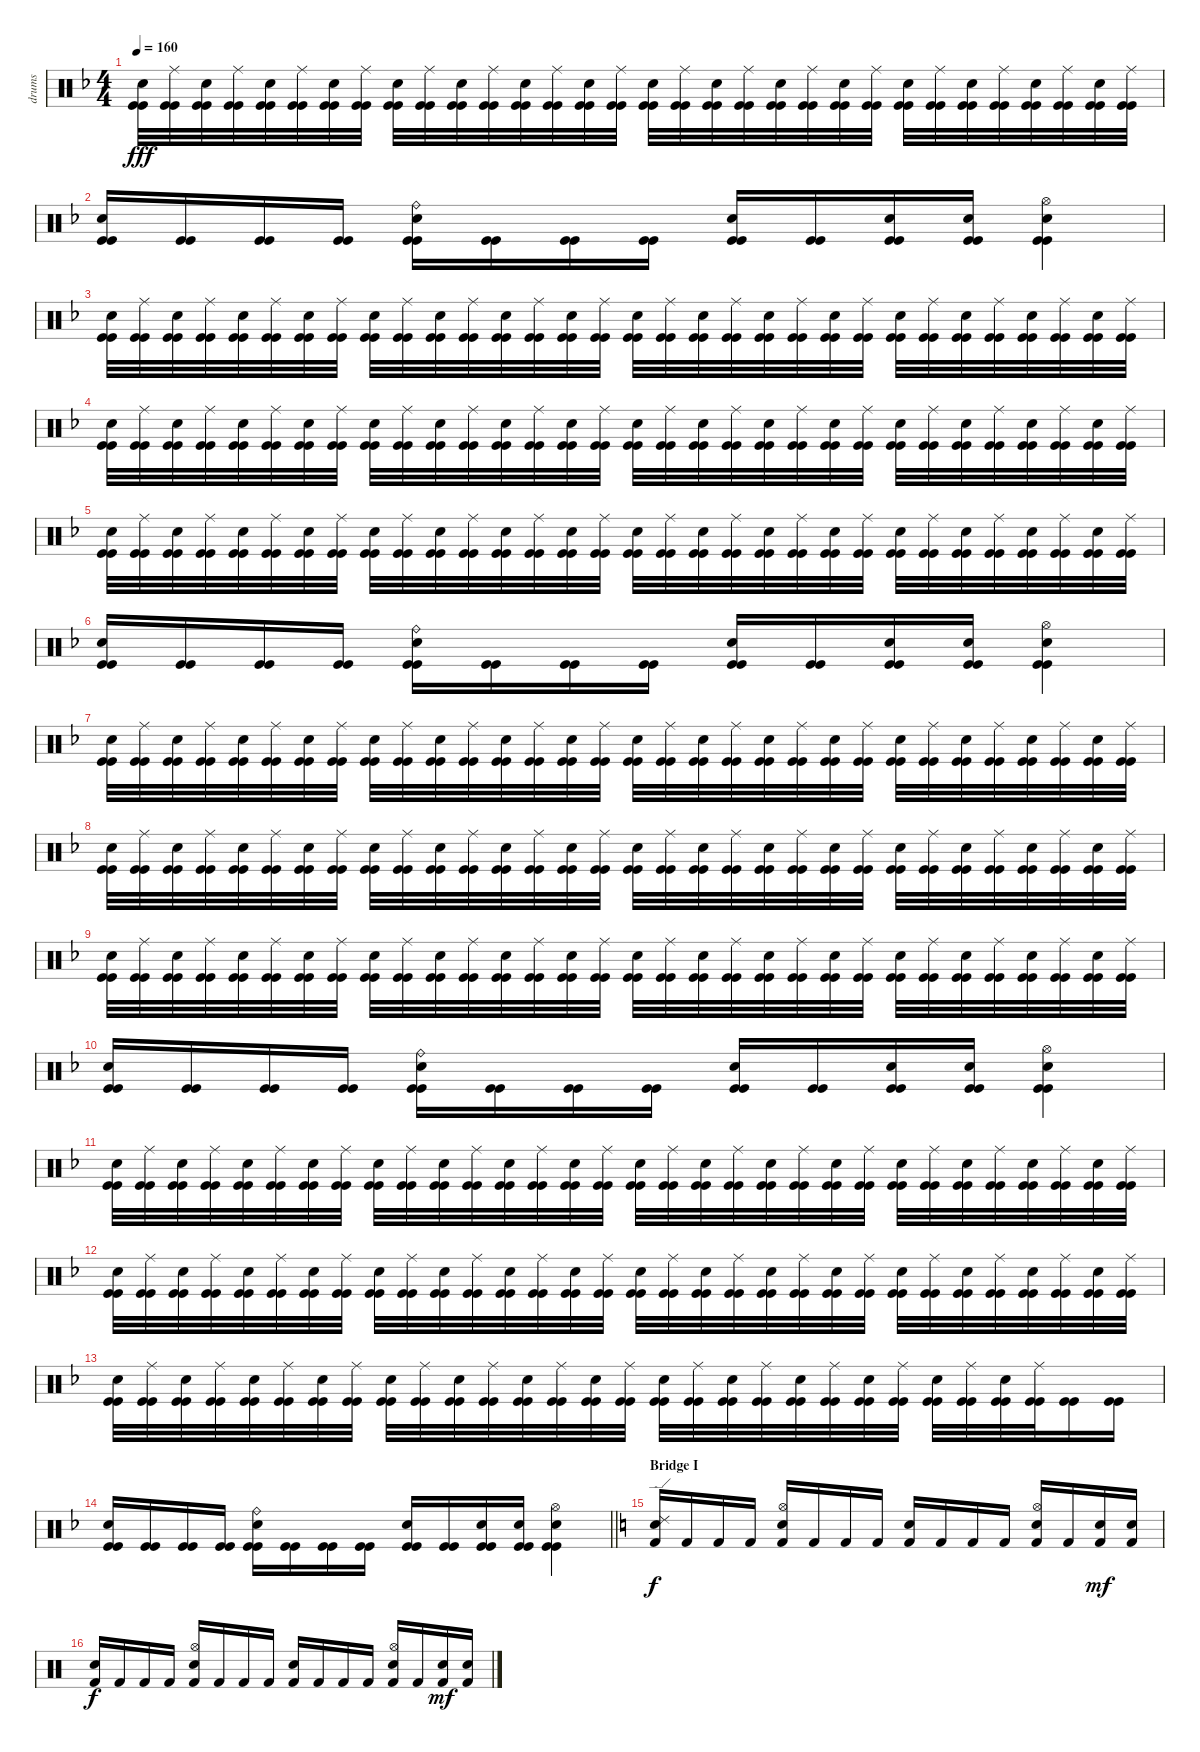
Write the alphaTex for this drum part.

\track ("drums" "drums") {instrument percussion}
\staff {score}
\articulation defaults
\ts (4 4)
\tempo 160
\clef neutral
\ks dminor
("Kick (hit)" "Kick (hit)" "Electric Snare (hit)").32{dy fff} ("Kick (hit)" "Kick (hit)" "Ride (middle)").32 ("Kick (hit)" "Kick (hit)" "Electric Snare (hit)").32 ("Kick (hit)" "Kick (hit)" "Ride (middle)").32 ("Kick (hit)" "Kick (hit)" "Electric Snare (hit)").32 ("Kick (hit)" "Kick (hit)" "Ride (middle)").32 ("Kick (hit)" "Kick (hit)" "Electric Snare (hit)").32 ("Kick (hit)" "Kick (hit)" "Ride (middle)").32 ("Kick (hit)" "Kick (hit)" "Electric Snare (hit)").32 ("Kick (hit)" "Kick (hit)" "Ride (middle)").32 ("Kick (hit)" "Kick (hit)" "Electric Snare (hit)").32 ("Kick (hit)" "Kick (hit)" "Ride (middle)").32 ("Kick (hit)" "Kick (hit)" "Electric Snare (hit)").32 ("Kick (hit)" "Kick (hit)" "Ride (middle)").32 ("Kick (hit)" "Kick (hit)" "Electric Snare (hit)").32 ("Kick (hit)" "Kick (hit)" "Ride (middle)").32 ("Kick (hit)" "Kick (hit)" "Electric Snare (hit)").32 ("Kick (hit)" "Kick (hit)" "Ride (middle)").32 ("Kick (hit)" "Kick (hit)" "Electric Snare (hit)").32 ("Kick (hit)" "Kick (hit)" "Ride (middle)").32 ("Kick (hit)" "Kick (hit)" "Electric Snare (hit)").32 ("Kick (hit)" "Kick (hit)" "Ride (middle)").32 ("Kick (hit)" "Kick (hit)" "Electric Snare (hit)").32 ("Kick (hit)" "Kick (hit)" "Ride (middle)").32 ("Kick (hit)" "Kick (hit)" "Electric Snare (hit)").32 ("Kick (hit)" "Kick (hit)" "Ride (middle)").32 ("Kick (hit)" "Kick (hit)" "Electric Snare (hit)").32 ("Kick (hit)" "Kick (hit)" "Ride (middle)").32 ("Kick (hit)" "Kick (hit)" "Electric Snare (hit)").32 ("Kick (hit)" "Kick (hit)" "Ride (middle)").32 ("Kick (hit)" "Kick (hit)" "Electric Snare (hit)").32 ("Kick (hit)" "Kick (hit)" "Ride (middle)").32 |
("Kick (hit)" "Kick (hit)" "Electric Snare (hit)").16 ("Kick (hit)" "Kick (hit)").16 ("Kick (hit)" "Kick (hit)").16 ("Kick (hit)" "Kick (hit)").16 ("Kick (hit)" "Kick (hit)" "Electric Snare (hit)" "Ride (bell)").16 ("Kick (hit)" "Kick (hit)").16 ("Kick (hit)" "Kick (hit)").16 ("Kick (hit)" "Kick (hit)").16 ("Kick (hit)" "Kick (hit)" "Electric Snare (hit)").16 ("Kick (hit)" "Kick (hit)").16 ("Kick (hit)" "Kick (hit)" "Electric Snare (hit)").16 ("Kick (hit)" "Kick (hit)" "Electric Snare (hit)").16 ("Kick (hit)" "Kick (hit)" "Electric Snare (hit)" "Hi-Hat (open)").4 |
("Kick (hit)" "Kick (hit)" "Electric Snare (hit)").32 ("Kick (hit)" "Kick (hit)" "Ride (middle)").32 ("Kick (hit)" "Kick (hit)" "Electric Snare (hit)").32 ("Kick (hit)" "Kick (hit)" "Ride (middle)").32 ("Kick (hit)" "Kick (hit)" "Electric Snare (hit)").32 ("Kick (hit)" "Kick (hit)" "Ride (middle)").32 ("Kick (hit)" "Kick (hit)" "Electric Snare (hit)").32 ("Kick (hit)" "Kick (hit)" "Ride (middle)").32 ("Kick (hit)" "Kick (hit)" "Electric Snare (hit)").32 ("Kick (hit)" "Kick (hit)" "Ride (middle)").32 ("Kick (hit)" "Kick (hit)" "Electric Snare (hit)").32 ("Kick (hit)" "Kick (hit)" "Ride (middle)").32 ("Kick (hit)" "Kick (hit)" "Electric Snare (hit)").32 ("Kick (hit)" "Kick (hit)" "Ride (middle)").32 ("Kick (hit)" "Kick (hit)" "Electric Snare (hit)").32 ("Kick (hit)" "Kick (hit)" "Ride (middle)").32 ("Kick (hit)" "Kick (hit)" "Electric Snare (hit)").32 ("Kick (hit)" "Kick (hit)" "Ride (middle)").32 ("Kick (hit)" "Kick (hit)" "Electric Snare (hit)").32 ("Kick (hit)" "Kick (hit)" "Ride (middle)").32 ("Kick (hit)" "Kick (hit)" "Electric Snare (hit)").32 ("Kick (hit)" "Kick (hit)" "Ride (middle)").32 ("Kick (hit)" "Kick (hit)" "Electric Snare (hit)").32 ("Kick (hit)" "Kick (hit)" "Ride (middle)").32 ("Kick (hit)" "Kick (hit)" "Electric Snare (hit)").32 ("Kick (hit)" "Kick (hit)" "Ride (middle)").32 ("Kick (hit)" "Kick (hit)" "Electric Snare (hit)").32 ("Kick (hit)" "Kick (hit)" "Ride (middle)").32 ("Kick (hit)" "Kick (hit)" "Electric Snare (hit)").32 ("Kick (hit)" "Kick (hit)" "Ride (middle)").32 ("Kick (hit)" "Kick (hit)" "Electric Snare (hit)").32 ("Kick (hit)" "Kick (hit)" "Ride (middle)").32 |
("Kick (hit)" "Kick (hit)" "Electric Snare (hit)").32 ("Kick (hit)" "Kick (hit)" "Ride (middle)").32 ("Kick (hit)" "Kick (hit)" "Electric Snare (hit)").32 ("Kick (hit)" "Kick (hit)" "Ride (middle)").32 ("Kick (hit)" "Kick (hit)" "Electric Snare (hit)").32 ("Kick (hit)" "Kick (hit)" "Ride (middle)").32 ("Kick (hit)" "Kick (hit)" "Electric Snare (hit)").32 ("Kick (hit)" "Kick (hit)" "Ride (middle)").32 ("Kick (hit)" "Kick (hit)" "Electric Snare (hit)").32 ("Kick (hit)" "Kick (hit)" "Ride (middle)").32 ("Kick (hit)" "Kick (hit)" "Electric Snare (hit)").32 ("Kick (hit)" "Kick (hit)" "Ride (middle)").32 ("Kick (hit)" "Kick (hit)" "Electric Snare (hit)").32 ("Kick (hit)" "Kick (hit)" "Ride (middle)").32 ("Kick (hit)" "Kick (hit)" "Electric Snare (hit)").32 ("Kick (hit)" "Kick (hit)" "Ride (middle)").32 ("Kick (hit)" "Kick (hit)" "Electric Snare (hit)").32 ("Kick (hit)" "Kick (hit)" "Ride (middle)").32 ("Kick (hit)" "Kick (hit)" "Electric Snare (hit)").32 ("Kick (hit)" "Kick (hit)" "Ride (middle)").32 ("Kick (hit)" "Kick (hit)" "Electric Snare (hit)").32 ("Kick (hit)" "Kick (hit)" "Ride (middle)").32 ("Kick (hit)" "Kick (hit)" "Electric Snare (hit)").32 ("Kick (hit)" "Kick (hit)" "Ride (middle)").32 ("Kick (hit)" "Kick (hit)" "Electric Snare (hit)").32 ("Kick (hit)" "Kick (hit)" "Ride (middle)").32 ("Kick (hit)" "Kick (hit)" "Electric Snare (hit)").32 ("Kick (hit)" "Kick (hit)" "Ride (middle)").32 ("Kick (hit)" "Kick (hit)" "Electric Snare (hit)").32 ("Kick (hit)" "Kick (hit)" "Ride (middle)").32 ("Kick (hit)" "Kick (hit)" "Electric Snare (hit)").32 ("Kick (hit)" "Kick (hit)" "Ride (middle)").32 |
("Kick (hit)" "Kick (hit)" "Electric Snare (hit)").32 ("Kick (hit)" "Kick (hit)" "Ride (middle)").32 ("Kick (hit)" "Kick (hit)" "Electric Snare (hit)").32 ("Kick (hit)" "Kick (hit)" "Ride (middle)").32 ("Kick (hit)" "Kick (hit)" "Electric Snare (hit)").32 ("Kick (hit)" "Kick (hit)" "Ride (middle)").32 ("Kick (hit)" "Kick (hit)" "Electric Snare (hit)").32 ("Kick (hit)" "Kick (hit)" "Ride (middle)").32 ("Kick (hit)" "Kick (hit)" "Electric Snare (hit)").32 ("Kick (hit)" "Kick (hit)" "Ride (middle)").32 ("Kick (hit)" "Kick (hit)" "Electric Snare (hit)").32 ("Kick (hit)" "Kick (hit)" "Ride (middle)").32 ("Kick (hit)" "Kick (hit)" "Electric Snare (hit)").32 ("Kick (hit)" "Kick (hit)" "Ride (middle)").32 ("Kick (hit)" "Kick (hit)" "Electric Snare (hit)").32 ("Kick (hit)" "Kick (hit)" "Ride (middle)").32 ("Kick (hit)" "Kick (hit)" "Electric Snare (hit)").32 ("Kick (hit)" "Kick (hit)" "Ride (middle)").32 ("Kick (hit)" "Kick (hit)" "Electric Snare (hit)").32 ("Kick (hit)" "Kick (hit)" "Ride (middle)").32 ("Kick (hit)" "Kick (hit)" "Electric Snare (hit)").32 ("Kick (hit)" "Kick (hit)" "Ride (middle)").32 ("Kick (hit)" "Kick (hit)" "Electric Snare (hit)").32 ("Kick (hit)" "Kick (hit)" "Ride (middle)").32 ("Kick (hit)" "Kick (hit)" "Electric Snare (hit)").32 ("Kick (hit)" "Kick (hit)" "Ride (middle)").32 ("Kick (hit)" "Kick (hit)" "Electric Snare (hit)").32 ("Kick (hit)" "Kick (hit)" "Ride (middle)").32 ("Kick (hit)" "Kick (hit)" "Electric Snare (hit)").32 ("Kick (hit)" "Kick (hit)" "Ride (middle)").32 ("Kick (hit)" "Kick (hit)" "Electric Snare (hit)").32 ("Kick (hit)" "Kick (hit)" "Ride (middle)").32 |
("Kick (hit)" "Kick (hit)" "Electric Snare (hit)").16 ("Kick (hit)" "Kick (hit)").16 ("Kick (hit)" "Kick (hit)").16 ("Kick (hit)" "Kick (hit)").16 ("Kick (hit)" "Kick (hit)" "Electric Snare (hit)" "Ride (bell)").16 ("Kick (hit)" "Kick (hit)").16 ("Kick (hit)" "Kick (hit)").16 ("Kick (hit)" "Kick (hit)").16 ("Kick (hit)" "Kick (hit)" "Electric Snare (hit)").16 ("Kick (hit)" "Kick (hit)").16 ("Kick (hit)" "Kick (hit)" "Electric Snare (hit)").16 ("Kick (hit)" "Kick (hit)" "Electric Snare (hit)").16 ("Kick (hit)" "Kick (hit)" "Electric Snare (hit)" "Hi-Hat (open)").4 |
("Kick (hit)" "Kick (hit)" "Electric Snare (hit)").32 ("Kick (hit)" "Kick (hit)" "Ride (middle)").32 ("Kick (hit)" "Kick (hit)" "Electric Snare (hit)").32 ("Kick (hit)" "Kick (hit)" "Ride (middle)").32 ("Kick (hit)" "Kick (hit)" "Electric Snare (hit)").32 ("Kick (hit)" "Kick (hit)" "Ride (middle)").32 ("Kick (hit)" "Kick (hit)" "Electric Snare (hit)").32 ("Kick (hit)" "Kick (hit)" "Ride (middle)").32 ("Kick (hit)" "Kick (hit)" "Electric Snare (hit)").32 ("Kick (hit)" "Kick (hit)" "Ride (middle)").32 ("Kick (hit)" "Kick (hit)" "Electric Snare (hit)").32 ("Kick (hit)" "Kick (hit)" "Ride (middle)").32 ("Kick (hit)" "Kick (hit)" "Electric Snare (hit)").32 ("Kick (hit)" "Kick (hit)" "Ride (middle)").32 ("Kick (hit)" "Kick (hit)" "Electric Snare (hit)").32 ("Kick (hit)" "Kick (hit)" "Ride (middle)").32 ("Kick (hit)" "Kick (hit)" "Electric Snare (hit)").32 ("Kick (hit)" "Kick (hit)" "Ride (middle)").32 ("Kick (hit)" "Kick (hit)" "Electric Snare (hit)").32 ("Kick (hit)" "Kick (hit)" "Ride (middle)").32 ("Kick (hit)" "Kick (hit)" "Electric Snare (hit)").32 ("Kick (hit)" "Kick (hit)" "Ride (middle)").32 ("Kick (hit)" "Kick (hit)" "Electric Snare (hit)").32 ("Kick (hit)" "Kick (hit)" "Ride (middle)").32 ("Kick (hit)" "Kick (hit)" "Electric Snare (hit)").32 ("Kick (hit)" "Kick (hit)" "Ride (middle)").32 ("Kick (hit)" "Kick (hit)" "Electric Snare (hit)").32 ("Kick (hit)" "Kick (hit)" "Ride (middle)").32 ("Kick (hit)" "Kick (hit)" "Electric Snare (hit)").32 ("Kick (hit)" "Kick (hit)" "Ride (middle)").32 ("Kick (hit)" "Kick (hit)" "Electric Snare (hit)").32 ("Kick (hit)" "Kick (hit)" "Ride (middle)").32 |
("Kick (hit)" "Kick (hit)" "Electric Snare (hit)").32 ("Kick (hit)" "Kick (hit)" "Ride (middle)").32 ("Kick (hit)" "Kick (hit)" "Electric Snare (hit)").32 ("Kick (hit)" "Kick (hit)" "Ride (middle)").32 ("Kick (hit)" "Kick (hit)" "Electric Snare (hit)").32 ("Kick (hit)" "Kick (hit)" "Ride (middle)").32 ("Kick (hit)" "Kick (hit)" "Electric Snare (hit)").32 ("Kick (hit)" "Kick (hit)" "Ride (middle)").32 ("Kick (hit)" "Kick (hit)" "Electric Snare (hit)").32 ("Kick (hit)" "Kick (hit)" "Ride (middle)").32 ("Kick (hit)" "Kick (hit)" "Electric Snare (hit)").32 ("Kick (hit)" "Kick (hit)" "Ride (middle)").32 ("Kick (hit)" "Kick (hit)" "Electric Snare (hit)").32 ("Kick (hit)" "Kick (hit)" "Ride (middle)").32 ("Kick (hit)" "Kick (hit)" "Electric Snare (hit)").32 ("Kick (hit)" "Kick (hit)" "Ride (middle)").32 ("Kick (hit)" "Kick (hit)" "Electric Snare (hit)").32 ("Kick (hit)" "Kick (hit)" "Ride (middle)").32 ("Kick (hit)" "Kick (hit)" "Electric Snare (hit)").32 ("Kick (hit)" "Kick (hit)" "Ride (middle)").32 ("Kick (hit)" "Kick (hit)" "Electric Snare (hit)").32 ("Kick (hit)" "Kick (hit)" "Ride (middle)").32 ("Kick (hit)" "Kick (hit)" "Electric Snare (hit)").32 ("Kick (hit)" "Kick (hit)" "Ride (middle)").32 ("Kick (hit)" "Kick (hit)" "Electric Snare (hit)").32 ("Kick (hit)" "Kick (hit)" "Ride (middle)").32 ("Kick (hit)" "Kick (hit)" "Electric Snare (hit)").32 ("Kick (hit)" "Kick (hit)" "Ride (middle)").32 ("Kick (hit)" "Kick (hit)" "Electric Snare (hit)").32 ("Kick (hit)" "Kick (hit)" "Ride (middle)").32 ("Kick (hit)" "Kick (hit)" "Electric Snare (hit)").32 ("Kick (hit)" "Kick (hit)" "Ride (middle)").32 |
("Kick (hit)" "Kick (hit)" "Electric Snare (hit)").32 ("Kick (hit)" "Kick (hit)" "Ride (middle)").32 ("Kick (hit)" "Kick (hit)" "Electric Snare (hit)").32 ("Kick (hit)" "Kick (hit)" "Ride (middle)").32 ("Kick (hit)" "Kick (hit)" "Electric Snare (hit)").32 ("Kick (hit)" "Kick (hit)" "Ride (middle)").32 ("Kick (hit)" "Kick (hit)" "Electric Snare (hit)").32 ("Kick (hit)" "Kick (hit)" "Ride (middle)").32 ("Kick (hit)" "Kick (hit)" "Electric Snare (hit)").32 ("Kick (hit)" "Kick (hit)" "Ride (middle)").32 ("Kick (hit)" "Kick (hit)" "Electric Snare (hit)").32 ("Kick (hit)" "Kick (hit)" "Ride (middle)").32 ("Kick (hit)" "Kick (hit)" "Electric Snare (hit)").32 ("Kick (hit)" "Kick (hit)" "Ride (middle)").32 ("Kick (hit)" "Kick (hit)" "Electric Snare (hit)").32 ("Kick (hit)" "Kick (hit)" "Ride (middle)").32 ("Kick (hit)" "Kick (hit)" "Electric Snare (hit)").32 ("Kick (hit)" "Kick (hit)" "Ride (middle)").32 ("Kick (hit)" "Kick (hit)" "Electric Snare (hit)").32 ("Kick (hit)" "Kick (hit)" "Ride (middle)").32 ("Kick (hit)" "Kick (hit)" "Electric Snare (hit)").32 ("Kick (hit)" "Kick (hit)" "Ride (middle)").32 ("Kick (hit)" "Kick (hit)" "Electric Snare (hit)").32 ("Kick (hit)" "Kick (hit)" "Ride (middle)").32 ("Kick (hit)" "Kick (hit)" "Electric Snare (hit)").32 ("Kick (hit)" "Kick (hit)" "Ride (middle)").32 ("Kick (hit)" "Kick (hit)" "Electric Snare (hit)").32 ("Kick (hit)" "Kick (hit)" "Ride (middle)").32 ("Kick (hit)" "Kick (hit)" "Electric Snare (hit)").32 ("Kick (hit)" "Kick (hit)" "Ride (middle)").32 ("Kick (hit)" "Kick (hit)" "Electric Snare (hit)").32 ("Kick (hit)" "Kick (hit)" "Ride (middle)").32 |
("Kick (hit)" "Kick (hit)" "Electric Snare (hit)").16 ("Kick (hit)" "Kick (hit)").16 ("Kick (hit)" "Kick (hit)").16 ("Kick (hit)" "Kick (hit)").16 ("Kick (hit)" "Kick (hit)" "Electric Snare (hit)" "Ride (bell)").16 ("Kick (hit)" "Kick (hit)").16 ("Kick (hit)" "Kick (hit)").16 ("Kick (hit)" "Kick (hit)").16 ("Kick (hit)" "Kick (hit)" "Electric Snare (hit)").16 ("Kick (hit)" "Kick (hit)").16 ("Kick (hit)" "Kick (hit)" "Electric Snare (hit)").16 ("Kick (hit)" "Kick (hit)" "Electric Snare (hit)").16 ("Kick (hit)" "Kick (hit)" "Electric Snare (hit)" "Hi-Hat (open)").4 |
("Kick (hit)" "Kick (hit)" "Electric Snare (hit)").32 ("Kick (hit)" "Kick (hit)" "Ride (middle)").32 ("Kick (hit)" "Kick (hit)" "Electric Snare (hit)").32 ("Kick (hit)" "Kick (hit)" "Ride (middle)").32 ("Kick (hit)" "Kick (hit)" "Electric Snare (hit)").32 ("Kick (hit)" "Kick (hit)" "Ride (middle)").32 ("Kick (hit)" "Kick (hit)" "Electric Snare (hit)").32 ("Kick (hit)" "Kick (hit)" "Ride (middle)").32 ("Kick (hit)" "Kick (hit)" "Electric Snare (hit)").32 ("Kick (hit)" "Kick (hit)" "Ride (middle)").32 ("Kick (hit)" "Kick (hit)" "Electric Snare (hit)").32 ("Kick (hit)" "Kick (hit)" "Ride (middle)").32 ("Kick (hit)" "Kick (hit)" "Electric Snare (hit)").32 ("Kick (hit)" "Kick (hit)" "Ride (middle)").32 ("Kick (hit)" "Kick (hit)" "Electric Snare (hit)").32 ("Kick (hit)" "Kick (hit)" "Ride (middle)").32 ("Kick (hit)" "Kick (hit)" "Electric Snare (hit)").32 ("Kick (hit)" "Kick (hit)" "Ride (middle)").32 ("Kick (hit)" "Kick (hit)" "Electric Snare (hit)").32 ("Kick (hit)" "Kick (hit)" "Ride (middle)").32 ("Kick (hit)" "Kick (hit)" "Electric Snare (hit)").32 ("Kick (hit)" "Kick (hit)" "Ride (middle)").32 ("Kick (hit)" "Kick (hit)" "Electric Snare (hit)").32 ("Kick (hit)" "Kick (hit)" "Ride (middle)").32 ("Kick (hit)" "Kick (hit)" "Electric Snare (hit)").32 ("Kick (hit)" "Kick (hit)" "Ride (middle)").32 ("Kick (hit)" "Kick (hit)" "Electric Snare (hit)").32 ("Kick (hit)" "Kick (hit)" "Ride (middle)").32 ("Kick (hit)" "Kick (hit)" "Electric Snare (hit)").32 ("Kick (hit)" "Kick (hit)" "Ride (middle)").32 ("Kick (hit)" "Kick (hit)" "Electric Snare (hit)").32 ("Kick (hit)" "Kick (hit)" "Ride (middle)").32 |
("Kick (hit)" "Kick (hit)" "Electric Snare (hit)").32 ("Kick (hit)" "Kick (hit)" "Ride (middle)").32 ("Kick (hit)" "Kick (hit)" "Electric Snare (hit)").32 ("Kick (hit)" "Kick (hit)" "Ride (middle)").32 ("Kick (hit)" "Kick (hit)" "Electric Snare (hit)").32 ("Kick (hit)" "Kick (hit)" "Ride (middle)").32 ("Kick (hit)" "Kick (hit)" "Electric Snare (hit)").32 ("Kick (hit)" "Kick (hit)" "Ride (middle)").32 ("Kick (hit)" "Kick (hit)" "Electric Snare (hit)").32 ("Kick (hit)" "Kick (hit)" "Ride (middle)").32 ("Kick (hit)" "Kick (hit)" "Electric Snare (hit)").32 ("Kick (hit)" "Kick (hit)" "Ride (middle)").32 ("Kick (hit)" "Kick (hit)" "Electric Snare (hit)").32 ("Kick (hit)" "Kick (hit)" "Ride (middle)").32 ("Kick (hit)" "Kick (hit)" "Electric Snare (hit)").32 ("Kick (hit)" "Kick (hit)" "Ride (middle)").32 ("Kick (hit)" "Kick (hit)" "Electric Snare (hit)").32 ("Kick (hit)" "Kick (hit)" "Ride (middle)").32 ("Kick (hit)" "Kick (hit)" "Electric Snare (hit)").32 ("Kick (hit)" "Kick (hit)" "Ride (middle)").32 ("Kick (hit)" "Kick (hit)" "Electric Snare (hit)").32 ("Kick (hit)" "Kick (hit)" "Ride (middle)").32 ("Kick (hit)" "Kick (hit)" "Electric Snare (hit)").32 ("Kick (hit)" "Kick (hit)" "Ride (middle)").32 ("Kick (hit)" "Kick (hit)" "Electric Snare (hit)").32 ("Kick (hit)" "Kick (hit)" "Ride (middle)").32 ("Kick (hit)" "Kick (hit)" "Electric Snare (hit)").32 ("Kick (hit)" "Kick (hit)" "Ride (middle)").32 ("Kick (hit)" "Kick (hit)" "Electric Snare (hit)").32 ("Kick (hit)" "Kick (hit)" "Ride (middle)").32 ("Kick (hit)" "Kick (hit)" "Electric Snare (hit)").32 ("Kick (hit)" "Kick (hit)" "Ride (middle)").32 |
("Kick (hit)" "Kick (hit)" "Electric Snare (hit)").32 ("Kick (hit)" "Kick (hit)" "Ride (middle)").32 ("Kick (hit)" "Kick (hit)" "Electric Snare (hit)").32 ("Kick (hit)" "Kick (hit)" "Ride (middle)").32 ("Kick (hit)" "Kick (hit)" "Electric Snare (hit)").32 ("Kick (hit)" "Kick (hit)" "Ride (middle)").32 ("Kick (hit)" "Kick (hit)" "Electric Snare (hit)").32 ("Kick (hit)" "Kick (hit)" "Ride (middle)").32 ("Kick (hit)" "Kick (hit)" "Electric Snare (hit)").32 ("Kick (hit)" "Kick (hit)" "Ride (middle)").32 ("Kick (hit)" "Kick (hit)" "Electric Snare (hit)").32 ("Kick (hit)" "Kick (hit)" "Ride (middle)").32 ("Kick (hit)" "Kick (hit)" "Electric Snare (hit)").32 ("Kick (hit)" "Kick (hit)" "Ride (middle)").32 ("Kick (hit)" "Kick (hit)" "Electric Snare (hit)").32 ("Kick (hit)" "Kick (hit)" "Ride (middle)").32 ("Kick (hit)" "Kick (hit)" "Electric Snare (hit)").32 ("Kick (hit)" "Kick (hit)" "Ride (middle)").32 ("Kick (hit)" "Kick (hit)" "Electric Snare (hit)").32 ("Kick (hit)" "Kick (hit)" "Ride (middle)").32 ("Kick (hit)" "Kick (hit)" "Electric Snare (hit)").32 ("Kick (hit)" "Kick (hit)" "Ride (middle)").32 ("Kick (hit)" "Kick (hit)" "Electric Snare (hit)").32 ("Kick (hit)" "Kick (hit)" "Ride (middle)").32 ("Kick (hit)" "Kick (hit)" "Electric Snare (hit)").32 ("Kick (hit)" "Kick (hit)" "Ride (middle)").32 ("Kick (hit)" "Kick (hit)" "Electric Snare (hit)").32 ("Kick (hit)" "Kick (hit)" "Ride (middle)").32 ("Kick (hit)" "Kick (hit)").16 ("Kick (hit)" "Kick (hit)").16 |
\barLineRight lightlight
("Kick (hit)" "Kick (hit)" "Electric Snare (hit)").16 ("Kick (hit)" "Kick (hit)").16 ("Kick (hit)" "Kick (hit)").16 ("Kick (hit)" "Kick (hit)").16 ("Kick (hit)" "Kick (hit)" "Electric Snare (hit)" "Ride (bell)").16 ("Kick (hit)" "Kick (hit)").16 ("Kick (hit)" "Kick (hit)").16 ("Kick (hit)" "Kick (hit)").16 ("Kick (hit)" "Kick (hit)" "Electric Snare (hit)").16 ("Kick (hit)" "Kick (hit)").16 ("Kick (hit)" "Kick (hit)" "Electric Snare (hit)").16 ("Kick (hit)" "Kick (hit)" "Electric Snare (hit)").16 ("Kick (hit)" "Kick (hit)" "Electric Snare (hit)" "Hi-Hat (open)").4 |
\section ("" "Bridge I")
\ks c
("Kick (hit) 2" "Electric Snare (hit)" "Ride (edge) 2").16{dy f} "Kick (hit) 2".16 "Kick (hit) 2".16 "Kick (hit) 2".16 ("Kick (hit) 2" "Electric Snare (hit)" "Hi-Hat (open)").16 "Kick (hit) 2".16 "Kick (hit) 2".16 "Kick (hit) 2".16 ("Kick (hit) 2" "Electric Snare (hit)").16 "Kick (hit) 2".16 "Kick (hit) 2".16 "Kick (hit) 2".16 ("Kick (hit) 2" "Electric Snare (hit)" "Hi-Hat (open)").16 "Kick (hit) 2".16 ("Kick (hit) 2" "Electric Snare (hit)").16{dy mf} ("Kick (hit) 2" "Electric Snare (hit)").16 |
("Kick (hit) 2" "Electric Snare (hit)").16{dy f} "Kick (hit) 2".16 "Kick (hit) 2".16 "Kick (hit) 2".16 ("Kick (hit) 2" "Electric Snare (hit)" "Hi-Hat (open)").16 "Kick (hit) 2".16 "Kick (hit) 2".16 "Kick (hit) 2".16 ("Kick (hit) 2" "Electric Snare (hit)").16 "Kick (hit) 2".16 "Kick (hit) 2".16 "Kick (hit) 2".16 ("Kick (hit) 2" "Electric Snare (hit)" "Hi-Hat (open)").16 "Kick (hit) 2".16 ("Kick (hit) 2" "Electric Snare (hit)").16{dy mf} ("Kick (hit) 2" "Electric Snare (hit)").16
